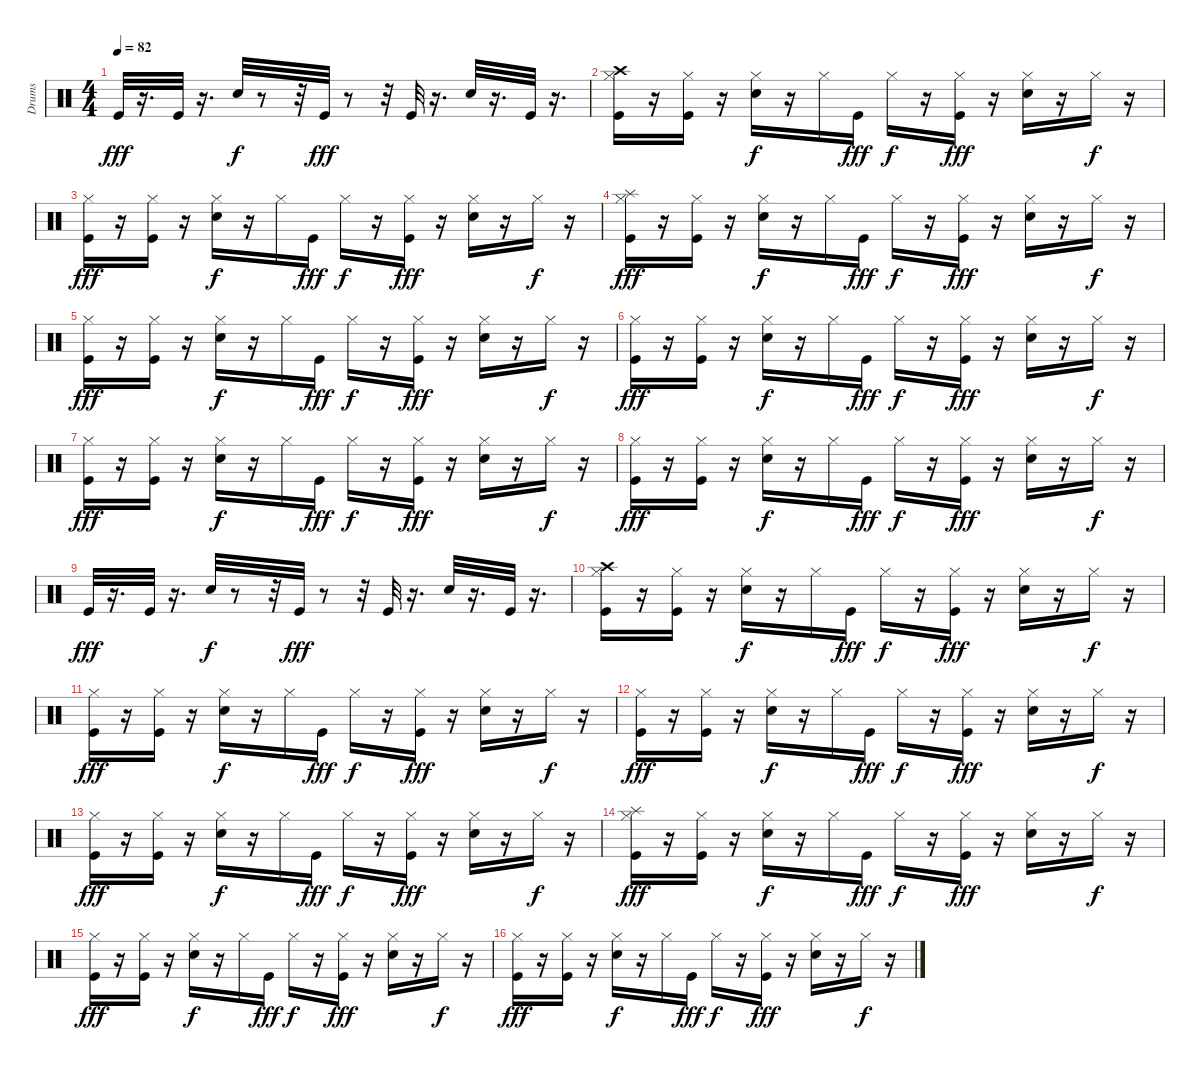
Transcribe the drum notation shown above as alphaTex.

\track ("Drums" "Drums") {instrument percussion}
\staff {score}
\articulation defaults
\ts (4 4)
\tempo 82
\clef neutral
\ks c "Kick (hit)".32{dy fff}
r.16{d} "Kick (hit)".32 r.16{d} "Hand Clap (hit)".32{dy f} r.8 r.32 "Kick (hit)".32{dy fff} r.8 r.32 "Kick (hit)".32 r.16{d} "Electric Snare (hit)".32 r.16{d} "Kick (hit)".32 r.16{d} |
("Hi-Hat (closed)" "Crash high (hit)" "Kick (hit)").16 r.16 ("Hi-Hat (closed)" "Kick (hit)").16 r.16 ("Hi-Hat (closed)" "Electric Snare (hit)").16{dy f} r.16 "Hi-Hat (closed)".16 "Kick (hit)".16{dy fff} "Hi-Hat (closed)".16{dy f} r.16 ("Hi-Hat (closed)" "Kick (hit)").16{dy fff} r.16 ("Hi-Hat (closed)" "Electric Snare (hit)").16 r.16 "Hi-Hat (closed)".16{dy f} r.16 |
("Hi-Hat (closed)" "Kick (hit)").16{dy fff} r.16 ("Hi-Hat (closed)" "Kick (hit)").16 r.16 ("Hi-Hat (closed)" "Electric Snare (hit)").16{dy f} r.16 "Hi-Hat (closed)".16 "Kick (hit)".16{dy fff} "Hi-Hat (closed)".16{dy f} r.16 ("Hi-Hat (closed)" "Kick (hit)").16{dy fff} r.16 ("Hi-Hat (closed)" "Electric Snare (hit)").16 r.16 "Hi-Hat (closed)".16{dy f} r.16 |
("Hi-Hat (closed)" "Splash (hit)" "Kick (hit)").16{dy fff} r.16 ("Hi-Hat (closed)" "Kick (hit)").16 r.16 ("Hi-Hat (closed)" "Electric Snare (hit)").16{dy f} r.16 "Hi-Hat (closed)".16 "Kick (hit)".16{dy fff} "Hi-Hat (closed)".16{dy f} r.16 ("Hi-Hat (closed)" "Kick (hit)").16{dy fff} r.16 ("Hi-Hat (closed)" "Electric Snare (hit)").16 r.16 "Hi-Hat (closed)".16{dy f} r.16 |
("Hi-Hat (closed)" "Kick (hit)").16{dy fff} r.16 ("Hi-Hat (closed)" "Kick (hit)").16 r.16 ("Hi-Hat (closed)" "Electric Snare (hit)").16{dy f} r.16 "Hi-Hat (closed)".16 "Kick (hit)".16{dy fff} "Hi-Hat (closed)".16{dy f} r.16 ("Hi-Hat (closed)" "Kick (hit)").16{dy fff} r.16 ("Hi-Hat (closed)" "Electric Snare (hit)").16 r.16 "Hi-Hat (closed)".16{dy f} r.16 |
("Hi-Hat (closed)" "Kick (hit)").16{dy fff} r.16 ("Hi-Hat (closed)" "Kick (hit)").16 r.16 ("Hi-Hat (closed)" "Electric Snare (hit)").16{dy f} r.16 "Hi-Hat (closed)".16 "Kick (hit)".16{dy fff} "Hi-Hat (closed)".16{dy f} r.16 ("Hi-Hat (closed)" "Kick (hit)").16{dy fff} r.16 ("Hi-Hat (closed)" "Electric Snare (hit)").16 r.16 "Hi-Hat (closed)".16{dy f} r.16 |
("Hi-Hat (closed)" "Kick (hit)").16{dy fff} r.16 ("Hi-Hat (closed)" "Kick (hit)").16 r.16 ("Hi-Hat (closed)" "Electric Snare (hit)").16{dy f} r.16 "Hi-Hat (closed)".16 "Kick (hit)".16{dy fff} "Hi-Hat (closed)".16{dy f} r.16 ("Hi-Hat (closed)" "Kick (hit)").16{dy fff} r.16 ("Hi-Hat (closed)" "Electric Snare (hit)").16 r.16 "Hi-Hat (closed)".16{dy f} r.16 |
("Hi-Hat (closed)" "Kick (hit)").16{dy fff} r.16 ("Hi-Hat (closed)" "Kick (hit)").16 r.16 ("Hi-Hat (closed)" "Electric Snare (hit)").16{dy f} r.16 "Hi-Hat (closed)".16 "Kick (hit)".16{dy fff} "Hi-Hat (closed)".16{dy f} r.16 ("Hi-Hat (closed)" "Kick (hit)").16{dy fff} r.16 ("Hi-Hat (closed)" "Electric Snare (hit)").16 r.16 "Hi-Hat (closed)".16{dy f} r.16 |
"Kick (hit)".32{dy fff} r.16{d} "Kick (hit)".32 r.16{d} "Hand Clap (hit)".32{dy f} r.8 r.32 "Kick (hit)".32{dy fff} r.8 r.32 "Kick (hit)".32 r.16{d} "Electric Snare (hit)".32 r.16{d} "Kick (hit)".32 r.16{d} |
("Hi-Hat (closed)" "Crash high (hit)" "Kick (hit)").16 r.16 ("Hi-Hat (closed)" "Kick (hit)").16 r.16 ("Hi-Hat (closed)" "Electric Snare (hit)").16{dy f} r.16 "Hi-Hat (closed)".16 "Kick (hit)".16{dy fff} "Hi-Hat (closed)".16{dy f} r.16 ("Hi-Hat (closed)" "Kick (hit)").16{dy fff} r.16 ("Hi-Hat (closed)" "Electric Snare (hit)").16 r.16 "Hi-Hat (closed)".16{dy f} r.16 |
("Hi-Hat (closed)" "Kick (hit)").16{dy fff} r.16 ("Hi-Hat (closed)" "Kick (hit)").16 r.16 ("Hi-Hat (closed)" "Electric Snare (hit)").16{dy f} r.16 "Hi-Hat (closed)".16 "Kick (hit)".16{dy fff} "Hi-Hat (closed)".16{dy f} r.16 ("Hi-Hat (closed)" "Kick (hit)").16{dy fff} r.16 ("Hi-Hat (closed)" "Electric Snare (hit)").16 r.16 "Hi-Hat (closed)".16{dy f} r.16 |
("Hi-Hat (closed)" "Kick (hit)").16{dy fff} r.16 ("Hi-Hat (closed)" "Kick (hit)").16 r.16 ("Hi-Hat (closed)" "Electric Snare (hit)").16{dy f} r.16 "Hi-Hat (closed)".16 "Kick (hit)".16{dy fff} "Hi-Hat (closed)".16{dy f} r.16 ("Hi-Hat (closed)" "Kick (hit)").16{dy fff} r.16 ("Hi-Hat (closed)" "Electric Snare (hit)").16 r.16 "Hi-Hat (closed)".16{dy f} r.16 |
("Hi-Hat (closed)" "Kick (hit)").16{dy fff} r.16 ("Hi-Hat (closed)" "Kick (hit)").16 r.16 ("Hi-Hat (closed)" "Electric Snare (hit)").16{dy f} r.16 "Hi-Hat (closed)".16 "Kick (hit)".16{dy fff} "Hi-Hat (closed)".16{dy f} r.16 ("Hi-Hat (closed)" "Kick (hit)").16{dy fff} r.16 ("Hi-Hat (closed)" "Electric Snare (hit)").16 r.16 "Hi-Hat (closed)".16{dy f} r.16 |
("Hi-Hat (closed)" "Splash (hit)" "Kick (hit)").16{dy fff} r.16 ("Hi-Hat (closed)" "Kick (hit)").16 r.16 ("Hi-Hat (closed)" "Electric Snare (hit)").16{dy f} r.16 "Hi-Hat (closed)".16 "Kick (hit)".16{dy fff} "Hi-Hat (closed)".16{dy f} r.16 ("Hi-Hat (closed)" "Kick (hit)").16{dy fff} r.16 ("Hi-Hat (closed)" "Electric Snare (hit)").16 r.16 "Hi-Hat (closed)".16{dy f} r.16 |
("Hi-Hat (closed)" "Kick (hit)").16{dy fff} r.16 ("Hi-Hat (closed)" "Kick (hit)").16 r.16 ("Hi-Hat (closed)" "Electric Snare (hit)").16{dy f} r.16 "Hi-Hat (closed)".16 "Kick (hit)".16{dy fff} "Hi-Hat (closed)".16{dy f} r.16 ("Hi-Hat (closed)" "Kick (hit)").16{dy fff} r.16 ("Hi-Hat (closed)" "Electric Snare (hit)").16 r.16 "Hi-Hat (closed)".16{dy f} r.16 |
("Hi-Hat (closed)" "Kick (hit)").16{dy fff} r.16 ("Hi-Hat (closed)" "Kick (hit)").16 r.16 ("Hi-Hat (closed)" "Electric Snare (hit)").16{dy f} r.16 "Hi-Hat (closed)".16 "Kick (hit)".16{dy fff} "Hi-Hat (closed)".16{dy f} r.16 ("Hi-Hat (closed)" "Kick (hit)").16{dy fff} r.16 ("Hi-Hat (closed)" "Electric Snare (hit)").16 r.16 "Hi-Hat (closed)".16{dy f} r.16
